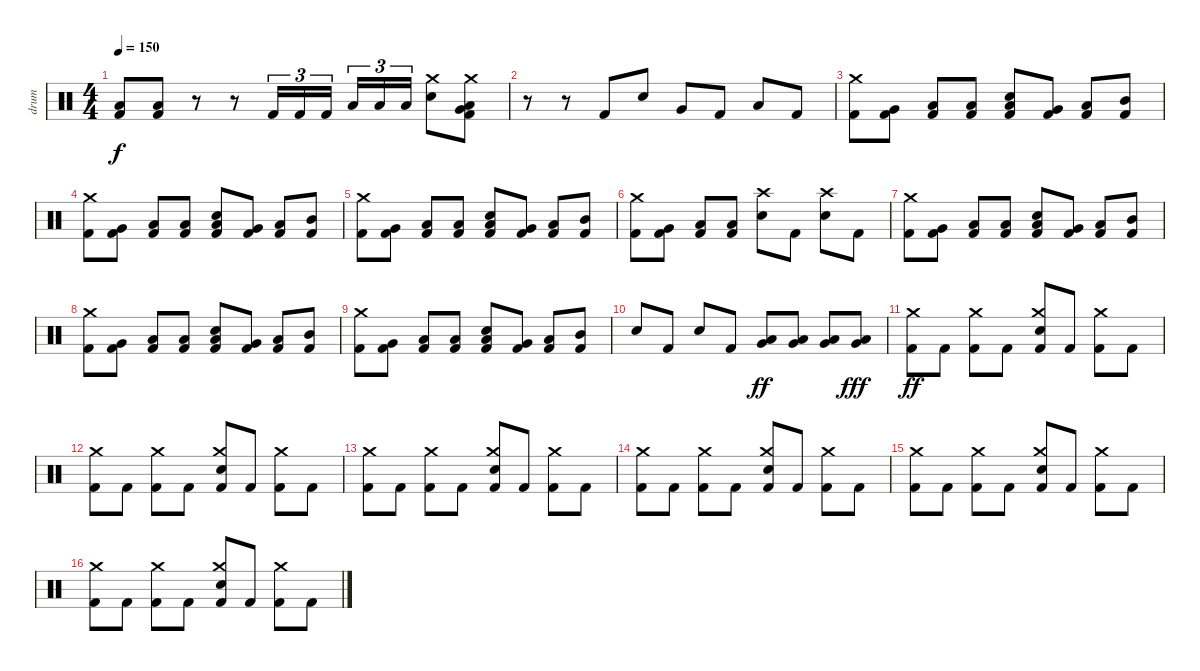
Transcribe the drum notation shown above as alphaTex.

\track ("drum" "drum") {instrument percussion}
\staff {score}
\articulation defaults
\ts (4 4)
\tempo 150
\clef neutral
\ks c
("Kick (hit) 2" "Low Floor Tom (hit)").8{dy f} ("Kick (hit) 2" "Low Floor Tom (hit)").8 r.8 r.8 "Kick (hit) 2".16{tu (3 2)} "Kick (hit) 2".16{tu (3 2)} "Kick (hit) 2".16{tu (3 2) beam splitsecondary} "Low Floor Tom (hit)".16{tu (3 2)} "Low Floor Tom (hit)".16{tu (3 2)} "Low Floor Tom (hit)".16{tu (3 2)} ("Crash medium (hit)" "Electric Snare (hit)").8 ("Crash medium (hit)" "Very Low Tom (hit)" "Low Floor Tom (hit)" "Kick (hit) 2").8 |
r.8 r.8 "Kick (hit) 2".8 "Electric Snare (hit)".8 "Very Low Tom (hit)".8 "Kick (hit) 2".8 "Low Floor Tom (hit)".8 "Kick (hit) 2".8 |
("Crash medium (hit)" "Kick (hit) 2").8 ("Very Low Tom (hit)" "Kick (hit) 2").8 ("Low Floor Tom (hit)" "Kick (hit) 2").8 ("Low Tom (hit)" "Kick (hit) 2").8 ("Low Floor Tom (hit)" "Electric Snare (hit)" "Kick (hit) 2").8 ("Very Low Tom (hit)" "Kick (hit) 2").8 ("Low Tom (hit)" "Kick (hit) 2").8 ("Mid Tom (hit)" "Kick (hit) 2").8 |
("Crash medium (hit)" "Kick (hit) 2").8 ("Very Low Tom (hit)" "Kick (hit) 2").8 ("Low Floor Tom (hit)" "Kick (hit) 2").8 ("Low Tom (hit)" "Kick (hit) 2").8 ("Low Floor Tom (hit)" "Electric Snare (hit)" "Kick (hit) 2").8 ("Very Low Tom (hit)" "Kick (hit) 2").8 ("Low Tom (hit)" "Kick (hit) 2").8 ("Mid Tom (hit)" "Kick (hit) 2").8 |
("Crash medium (hit)" "Kick (hit) 2").8 ("Very Low Tom (hit)" "Kick (hit) 2").8 ("Low Floor Tom (hit)" "Kick (hit) 2").8 ("Low Tom (hit)" "Kick (hit) 2").8 ("Low Floor Tom (hit)" "Electric Snare (hit)" "Kick (hit) 2").8 ("Very Low Tom (hit)" "Kick (hit) 2").8 ("Low Tom (hit)" "Kick (hit) 2").8 ("Mid Tom (hit)" "Kick (hit) 2").8 |
("Crash medium (hit)" "Kick (hit) 2").8 ("Very Low Tom (hit)" "Kick (hit) 2").8 ("Low Floor Tom (hit)" "Kick (hit) 2").8 ("Low Tom (hit)" "Kick (hit) 2").8 ("Crash high (hit)" "Electric Snare (hit)").8 "Kick (hit) 2".8 ("Crash high (hit)" "Electric Snare (hit)").8 "Kick (hit) 2".8 |
("Crash medium (hit)" "Kick (hit) 2").8 ("Very Low Tom (hit)" "Kick (hit) 2").8 ("Low Floor Tom (hit)" "Kick (hit) 2").8 ("Low Tom (hit)" "Kick (hit) 2").8 ("Low Floor Tom (hit)" "Electric Snare (hit)" "Kick (hit) 2").8 ("Very Low Tom (hit)" "Kick (hit) 2").8 ("Low Tom (hit)" "Kick (hit) 2").8 ("Mid Tom (hit)" "Kick (hit) 2").8 |
("Crash medium (hit)" "Kick (hit) 2").8 ("Very Low Tom (hit)" "Kick (hit) 2").8 ("Low Floor Tom (hit)" "Kick (hit) 2").8 ("Low Tom (hit)" "Kick (hit) 2").8 ("Low Floor Tom (hit)" "Electric Snare (hit)" "Kick (hit) 2").8 ("Very Low Tom (hit)" "Kick (hit) 2").8 ("Low Tom (hit)" "Kick (hit) 2").8 ("Mid Tom (hit)" "Kick (hit) 2").8 |
("Crash medium (hit)" "Kick (hit) 2").8 ("Very Low Tom (hit)" "Kick (hit) 2").8 ("Low Floor Tom (hit)" "Kick (hit) 2").8 ("Low Tom (hit)" "Kick (hit) 2").8 ("Low Floor Tom (hit)" "Electric Snare (hit)" "Kick (hit) 2").8 ("Very Low Tom (hit)" "Kick (hit) 2").8 ("Low Tom (hit)" "Kick (hit) 2").8 ("Mid Tom (hit)" "Kick (hit) 2").8 |
"Electric Snare (hit)".8 "Kick (hit) 2".8 "Electric Snare (hit)".8 "Kick (hit) 2".8 ("Very Low Tom (hit)" "Low Floor Tom (hit)").8{dy ff} ("Very Low Tom (hit)" "Low Floor Tom (hit)").8 ("Very Low Tom (hit)" "Low Floor Tom (hit)").8 ("Very Low Tom (hit)" "Low Floor Tom (hit)").8{dy fff} |
("Crash medium (hit)" "Kick (hit) 2").8{dy ff} "Kick (hit) 2".8 ("Crash medium (hit)" "Kick (hit) 2").8 "Kick (hit) 2".8 ("Crash medium (hit)" "Electric Snare (hit)" "Kick (hit) 2").8 "Kick (hit) 2".8 ("Crash medium (hit)" "Kick (hit) 2").8 "Kick (hit) 2".8 |
("Crash medium (hit)" "Kick (hit) 2").8 "Kick (hit) 2".8 ("Crash medium (hit)" "Kick (hit) 2").8 "Kick (hit) 2".8 ("Crash medium (hit)" "Electric Snare (hit)" "Kick (hit) 2").8 "Kick (hit) 2".8 ("Crash medium (hit)" "Kick (hit) 2").8 "Kick (hit) 2".8 |
("Crash medium (hit)" "Kick (hit) 2").8 "Kick (hit) 2".8 ("Crash medium (hit)" "Kick (hit) 2").8 "Kick (hit) 2".8 ("Crash medium (hit)" "Electric Snare (hit)" "Kick (hit) 2").8 "Kick (hit) 2".8 ("Crash medium (hit)" "Kick (hit) 2").8 "Kick (hit) 2".8 |
("Crash medium (hit)" "Kick (hit) 2").8 "Kick (hit) 2".8 ("Crash medium (hit)" "Kick (hit) 2").8 "Kick (hit) 2".8 ("Crash medium (hit)" "Electric Snare (hit)" "Kick (hit) 2").8 "Kick (hit) 2".8 ("Crash medium (hit)" "Kick (hit) 2").8 "Kick (hit) 2".8 |
("Crash medium (hit)" "Kick (hit) 2").8 "Kick (hit) 2".8 ("Crash medium (hit)" "Kick (hit) 2").8 "Kick (hit) 2".8 ("Crash medium (hit)" "Electric Snare (hit)" "Kick (hit) 2").8 "Kick (hit) 2".8 ("Crash medium (hit)" "Kick (hit) 2").8 "Kick (hit) 2".8 |
("Crash medium (hit)" "Kick (hit) 2").8 "Kick (hit) 2".8 ("Crash medium (hit)" "Kick (hit) 2").8 "Kick (hit) 2".8 ("Crash medium (hit)" "Electric Snare (hit)" "Kick (hit) 2").8 "Kick (hit) 2".8 ("Crash medium (hit)" "Kick (hit) 2").8 "Kick (hit) 2".8
